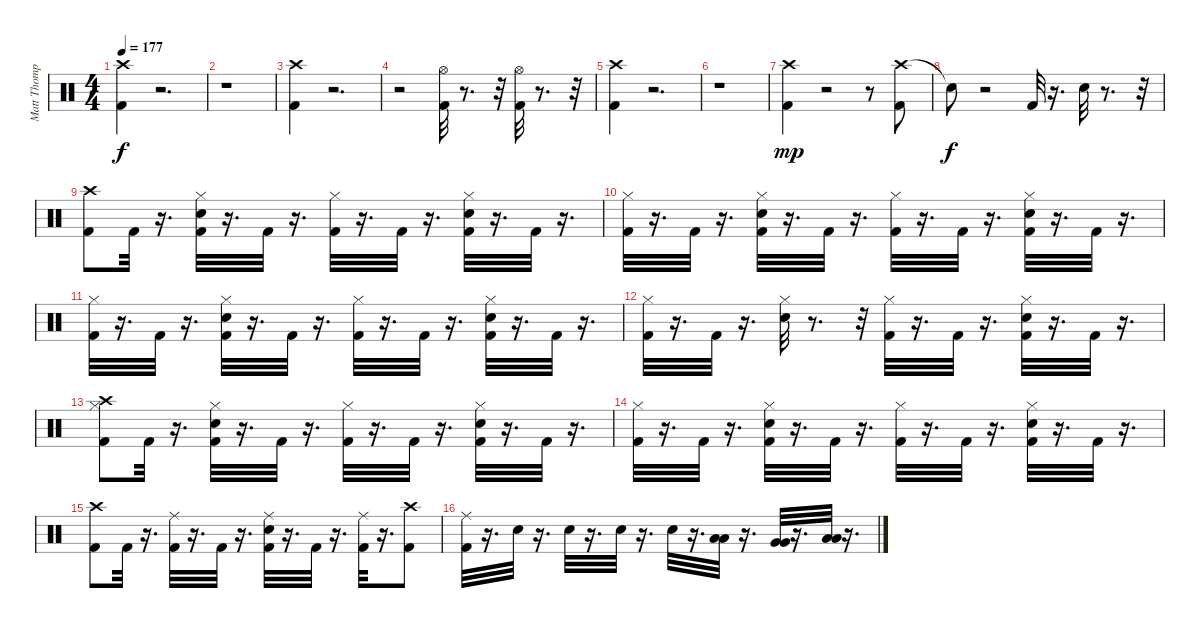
\track ("Matt Thompson" "Matt Thomp") {instrument percussion}
\staff {score}
\articulation defaults
\ts (4 4)
\tempo 177
\clef neutral
\ks c
("Crash high (hit)" "Kick (hit) 2").4{dy f} r.2{d} |
r.1 |
("Crash high (hit)" "Kick (hit) 2").4 r.2{d} |
r.2 ("Hi-Hat (open)" "Kick (hit) 2").32 r.8{d} r.32 ("Hi-Hat (open)" "Kick (hit) 2").32 r.8{d} r.32 |
("Crash high (hit)" "Kick (hit) 2").4 r.2{d} |
r.1 |
("Crash high (hit)" "Kick (hit) 2").4{dy mp} r.2 r.8 ("Crash high (hit)" "Kick (hit) 2").8 |
"Snare (hit)"{t}.8{dy f} r.2 "Kick (hit) 2".32 r.16{d} "Snare (hit) 2".32 r.8{d} r.32 |
("Crash high (hit)" "Kick (hit) 2").8 "Kick (hit) 2".32 r.16{d} ("Snare (hit) 2" "Hi-Hat (closed)" "Kick (hit) 2").32 r.16{d} "Kick (hit) 2".32 r.16{d} ("Hi-Hat (closed)" "Kick (hit) 2").32 r.16{d} "Kick (hit) 2".32 r.16{d} ("Snare (hit) 2" "Hi-Hat (closed)" "Kick (hit) 2").32 r.16{d} "Kick (hit) 2".32 r.16{d} |
("Hi-Hat (closed)" "Kick (hit) 2").32 r.16{d} "Kick (hit) 2".32 r.16{d} ("Snare (hit) 2" "Hi-Hat (closed)" "Kick (hit) 2").32 r.16{d} "Kick (hit) 2".32 r.16{d} ("Hi-Hat (closed)" "Kick (hit) 2").32 r.16{d} "Kick (hit) 2".32 r.16{d} ("Snare (hit) 2" "Hi-Hat (closed)" "Kick (hit) 2").32 r.16{d} "Kick (hit) 2".32 r.16{d} |
("Hi-Hat (closed)" "Kick (hit) 2").32 r.16{d} "Kick (hit) 2".32 r.16{d} ("Snare (hit) 2" "Hi-Hat (closed)" "Kick (hit) 2").32 r.16{d} "Kick (hit) 2".32 r.16{d} ("Hi-Hat (closed)" "Kick (hit) 2").32 r.16{d} "Kick (hit) 2".32 r.16{d} ("Snare (hit) 2" "Hi-Hat (closed)" "Kick (hit) 2").32 r.16{d} "Kick (hit) 2".32 r.16{d} |
("Hi-Hat (closed)" "Kick (hit) 2").32 r.16{d} "Kick (hit) 2".32 r.16{d} ("Hi-Hat (closed)" "Snare (hit) 2").32 r.8{d} r.32 ("Hi-Hat (closed)" "Kick (hit) 2").32 r.16{d} "Kick (hit) 2".32 r.16{d} ("Hi-Hat (closed)" "Snare (hit) 2" "Kick (hit) 2").32 r.16{d} "Kick (hit) 2".32 r.16{d} |
("Hi-Hat (closed)" "Crash high (hit)" "Kick (hit) 2").8 "Kick (hit) 2".32 r.16{d} ("Snare (hit) 2" "Hi-Hat (closed)" "Kick (hit) 2").32 r.16{d} "Kick (hit) 2".32 r.16{d} ("Hi-Hat (closed)" "Kick (hit) 2").32 r.16{d} "Kick (hit) 2".32 r.16{d} ("Snare (hit) 2" "Hi-Hat (closed)" "Kick (hit) 2").32 r.16{d} "Kick (hit) 2".32 r.16{d} |
("Hi-Hat (closed)" "Kick (hit) 2").32 r.16{d} "Kick (hit) 2".32 r.16{d} ("Snare (hit) 2" "Hi-Hat (closed)" "Kick (hit) 2").32 r.16{d} "Kick (hit) 2".32 r.16{d} ("Hi-Hat (closed)" "Kick (hit) 2").32 r.16{d} "Kick (hit) 2".32 r.16{d} ("Snare (hit) 2" "Hi-Hat (closed)" "Kick (hit) 2").32 r.16{d} "Kick (hit) 2".32 r.16{d} |
("Crash high (hit)" "Kick (hit) 2").8 "Kick (hit) 2".32 r.16{d} ("Ride (middle)" "Kick (hit) 2").32 r.16{d} "Kick (hit) 2".32 r.16{d} ("Ride (middle)" "Snare (hit) 2" "Kick (hit) 2").32 r.16{d} "Kick (hit) 2".32 r.16{d} ("Ride (middle)" "Kick (hit) 2").32 r.16{d} ("Crash high (hit)" "Kick (hit) 2").8 |
("Ride (middle)" "Kick (hit) 2").32 r.16{d} "Snare (hit) 2".32 r.16{d} "Snare (hit) 2".32 r.16{d} "Snare (hit) 2".32 r.16{d} "Snare (hit) 2".32 r.16{d} ("Low Tom (hit)" "Low Tom (hit)").32 r.16{d} ("Very Low Tom (hit)" "Very Low Tom (hit)").32 r.16{d} ("Low Floor Tom (hit)" "Low Floor Tom (hit)").32 r.16{d}
